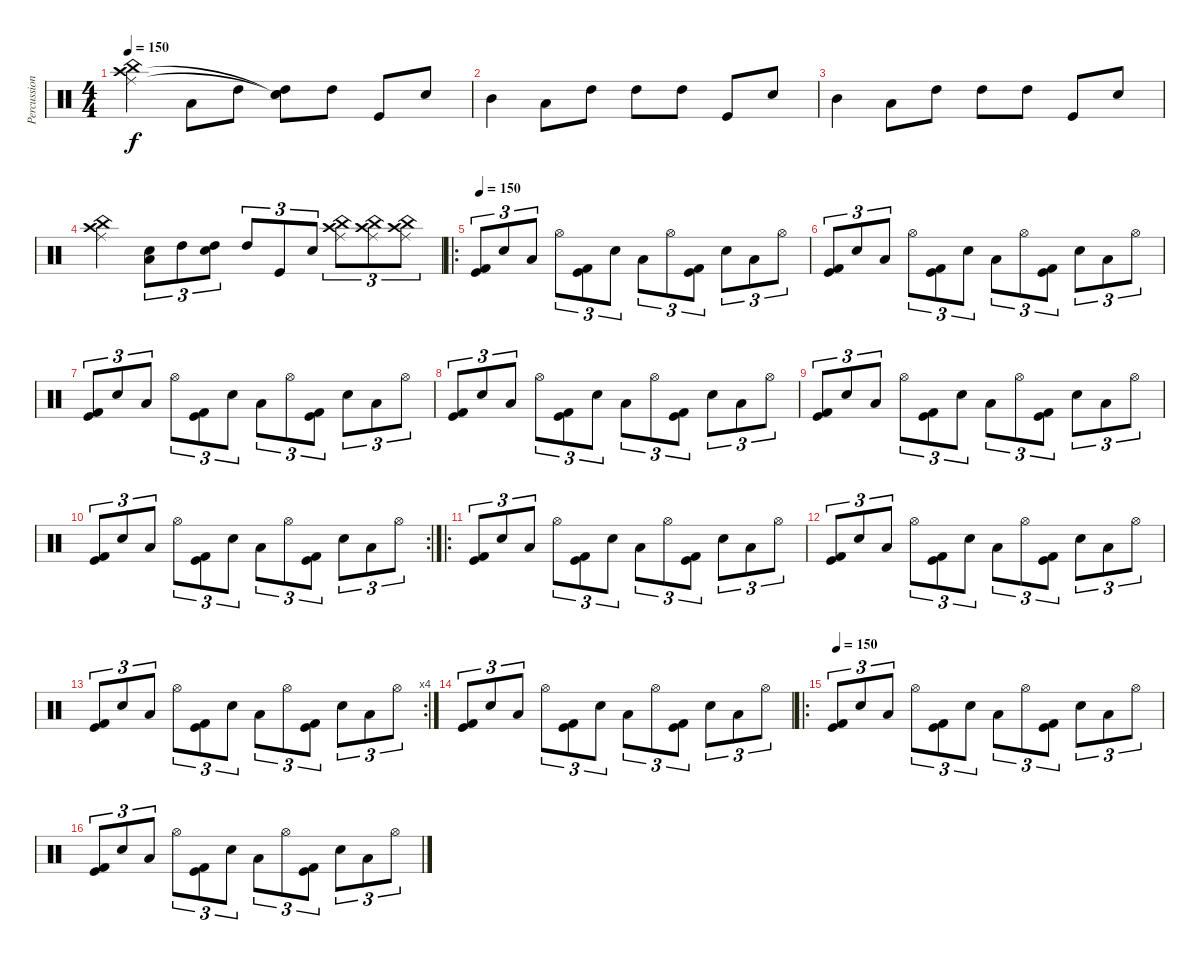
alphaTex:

\track ("Percussion" "Percussion") {instrument percussion}
\staff {score}
\articulation defaults
\ts (4 4)
\tempo 150
\clef neutral
\ks c
("China (hit)" "Ride (middle)" "Crash high (hit)").4{dy f} "Low Tom (hit)".8 "High Tom (hit)".8 ("High Tom (hit)" "Snare (hit)"{t} "Snare (hit)"{t}).8 "High Tom (hit)".8 "Kick (hit)".8 "Snare (hit) 2".8 |
"Mid Tom (hit)".4 "Low Tom (hit)".8 "High Tom (hit)".8 "High Tom (hit)".8 "High Tom (hit)".8 "Kick (hit)".8 "Snare (hit) 2".8 |
"Mid Tom (hit)".4 "Low Tom (hit)".8 "High Tom (hit)".8 "High Tom (hit)".8 "High Tom (hit)".8 "Kick (hit)".8 "Snare (hit) 2".8 |
("China (hit)" "Ride (middle)" "Crash high (hit)").4 ("Low Tom (hit)" "Snare (hit) 2").8{tu (3 2)} "High Tom (hit)".8{tu (3 2)} ("High Tom (hit)" "Snare (hit) 2").8{tu (3 2)} "High Tom (hit)".8{tu (3 2)} "Kick (hit)".8{tu (3 2)} "Snare (hit) 2".8{tu (3 2)} ("China (hit)" "Ride (middle)" "Crash high (hit)").8{tu (3 2)} ("China (hit)" "Ride (middle)" "Crash high (hit)").8{tu (3 2)} ("China (hit)" "Ride (middle)" "Crash high (hit)").8{tu (3 2)} |
\ro
\tempo 150
("Kick (hit)" "Kick (hit) 2").8{tu (3 2)} "Snare (hit) 2".8{tu (3 2)} "Low Tom (hit)".8{tu (3 2)} "Hi-Hat (open)".8{tu (3 2)} ("Kick (hit)" "Kick (hit) 2").8{tu (3 2)} "Snare (hit) 2".8{tu (3 2)} "Low Tom (hit)".8{tu (3 2)} "Hi-Hat (open)".8{tu (3 2)} ("Kick (hit)" "Kick (hit) 2").8{tu (3 2)} "Snare (hit) 2".8{tu (3 2)} "Low Tom (hit)".8{tu (3 2)} "Hi-Hat (open)".8{tu (3 2)} |
("Kick (hit)" "Kick (hit) 2").8{tu (3 2)} "Snare (hit) 2".8{tu (3 2)} "Low Tom (hit)".8{tu (3 2)} "Hi-Hat (open)".8{tu (3 2)} ("Kick (hit)" "Kick (hit) 2").8{tu (3 2)} "Snare (hit) 2".8{tu (3 2)} "Low Tom (hit)".8{tu (3 2)} "Hi-Hat (open)".8{tu (3 2)} ("Kick (hit)" "Kick (hit) 2").8{tu (3 2)} "Snare (hit) 2".8{tu (3 2)} "Low Tom (hit)".8{tu (3 2)} "Hi-Hat (open)".8{tu (3 2)} |
("Kick (hit)" "Kick (hit) 2").8{tu (3 2)} "Snare (hit) 2".8{tu (3 2)} "Low Tom (hit)".8{tu (3 2)} "Hi-Hat (open)".8{tu (3 2)} ("Kick (hit)" "Kick (hit) 2").8{tu (3 2)} "Snare (hit) 2".8{tu (3 2)} "Low Tom (hit)".8{tu (3 2)} "Hi-Hat (open)".8{tu (3 2)} ("Kick (hit)" "Kick (hit) 2").8{tu (3 2)} "Snare (hit) 2".8{tu (3 2)} "Low Tom (hit)".8{tu (3 2)} "Hi-Hat (open)".8{tu (3 2)} |
("Kick (hit)" "Kick (hit) 2").8{tu (3 2)} "Snare (hit) 2".8{tu (3 2)} "Low Tom (hit)".8{tu (3 2)} "Hi-Hat (open)".8{tu (3 2)} ("Kick (hit)" "Kick (hit) 2").8{tu (3 2)} "Snare (hit) 2".8{tu (3 2)} "Low Tom (hit)".8{tu (3 2)} "Hi-Hat (open)".8{tu (3 2)} ("Kick (hit)" "Kick (hit) 2").8{tu (3 2)} "Snare (hit) 2".8{tu (3 2)} "Low Tom (hit)".8{tu (3 2)} "Hi-Hat (open)".8{tu (3 2)} |
("Kick (hit)" "Kick (hit) 2").8{tu (3 2)} "Snare (hit) 2".8{tu (3 2)} "Low Tom (hit)".8{tu (3 2)} "Hi-Hat (open)".8{tu (3 2)} ("Kick (hit)" "Kick (hit) 2").8{tu (3 2)} "Snare (hit) 2".8{tu (3 2)} "Low Tom (hit)".8{tu (3 2)} "Hi-Hat (open)".8{tu (3 2)} ("Kick (hit)" "Kick (hit) 2").8{tu (3 2)} "Snare (hit) 2".8{tu (3 2)} "Low Tom (hit)".8{tu (3 2)} "Hi-Hat (open)".8{tu (3 2)} |
\rc 2
("Kick (hit)" "Kick (hit) 2").8{tu (3 2)} "Snare (hit) 2".8{tu (3 2)} "Low Tom (hit)".8{tu (3 2)} "Hi-Hat (open)".8{tu (3 2)} ("Kick (hit)" "Kick (hit) 2").8{tu (3 2)} "Snare (hit) 2".8{tu (3 2)} "Low Tom (hit)".8{tu (3 2)} "Hi-Hat (open)".8{tu (3 2)} ("Kick (hit)" "Kick (hit) 2").8{tu (3 2)} "Snare (hit) 2".8{tu (3 2)} "Low Tom (hit)".8{tu (3 2)} "Hi-Hat (open)".8{tu (3 2)} |
\ro
("Kick (hit)" "Kick (hit) 2").8{tu (3 2)} "Snare (hit) 2".8{tu (3 2)} "Low Tom (hit)".8{tu (3 2)} "Hi-Hat (open)".8{tu (3 2)} ("Kick (hit)" "Kick (hit) 2").8{tu (3 2)} "Snare (hit) 2".8{tu (3 2)} "Low Tom (hit)".8{tu (3 2)} "Hi-Hat (open)".8{tu (3 2)} ("Kick (hit)" "Kick (hit) 2").8{tu (3 2)} "Snare (hit) 2".8{tu (3 2)} "Low Tom (hit)".8{tu (3 2)} "Hi-Hat (open)".8{tu (3 2)} |
("Kick (hit)" "Kick (hit) 2").8{tu (3 2)} "Snare (hit) 2".8{tu (3 2)} "Low Tom (hit)".8{tu (3 2)} "Hi-Hat (open)".8{tu (3 2)} ("Kick (hit)" "Kick (hit) 2").8{tu (3 2)} "Snare (hit) 2".8{tu (3 2)} "Low Tom (hit)".8{tu (3 2)} "Hi-Hat (open)".8{tu (3 2)} ("Kick (hit)" "Kick (hit) 2").8{tu (3 2)} "Snare (hit) 2".8{tu (3 2)} "Low Tom (hit)".8{tu (3 2)} "Hi-Hat (open)".8{tu (3 2)} |
\rc 4
("Kick (hit)" "Kick (hit) 2").8{tu (3 2)} "Snare (hit) 2".8{tu (3 2)} "Low Tom (hit)".8{tu (3 2)} "Hi-Hat (open)".8{tu (3 2)} ("Kick (hit)" "Kick (hit) 2").8{tu (3 2)} "Snare (hit) 2".8{tu (3 2)} "Low Tom (hit)".8{tu (3 2)} "Hi-Hat (open)".8{tu (3 2)} ("Kick (hit)" "Kick (hit) 2").8{tu (3 2)} "Snare (hit) 2".8{tu (3 2)} "Low Tom (hit)".8{tu (3 2)} "Hi-Hat (open)".8{tu (3 2)} |
("Kick (hit)" "Kick (hit) 2").8{tu (3 2)} "Snare (hit) 2".8{tu (3 2)} "Low Tom (hit)".8{tu (3 2)} "Hi-Hat (open)".8{tu (3 2)} ("Kick (hit)" "Kick (hit) 2").8{tu (3 2)} "Snare (hit) 2".8{tu (3 2)} "Low Tom (hit)".8{tu (3 2)} "Hi-Hat (open)".8{tu (3 2)} ("Kick (hit)" "Kick (hit) 2").8{tu (3 2)} "Snare (hit) 2".8{tu (3 2)} "Low Tom (hit)".8{tu (3 2)} "Hi-Hat (open)".8{tu (3 2)} |
\ro
\tempo 150
("Kick (hit)" "Kick (hit) 2").8{tu (3 2)} "Snare (hit) 2".8{tu (3 2)} "Low Tom (hit)".8{tu (3 2)} "Hi-Hat (open)".8{tu (3 2)} ("Kick (hit)" "Kick (hit) 2").8{tu (3 2)} "Snare (hit) 2".8{tu (3 2)} "Low Tom (hit)".8{tu (3 2)} "Hi-Hat (open)".8{tu (3 2)} ("Kick (hit)" "Kick (hit) 2").8{tu (3 2)} "Snare (hit) 2".8{tu (3 2)} "Low Tom (hit)".8{tu (3 2)} "Hi-Hat (open)".8{tu (3 2)} |
("Kick (hit)" "Kick (hit) 2").8{tu (3 2)} "Snare (hit) 2".8{tu (3 2)} "Low Tom (hit)".8{tu (3 2)} "Hi-Hat (open)".8{tu (3 2)} ("Kick (hit)" "Kick (hit) 2").8{tu (3 2)} "Snare (hit) 2".8{tu (3 2)} "Low Tom (hit)".8{tu (3 2)} "Hi-Hat (open)".8{tu (3 2)} ("Kick (hit)" "Kick (hit) 2").8{tu (3 2)} "Snare (hit) 2".8{tu (3 2)} "Low Tom (hit)".8{tu (3 2)} "Hi-Hat (open)".8{tu (3 2)}
